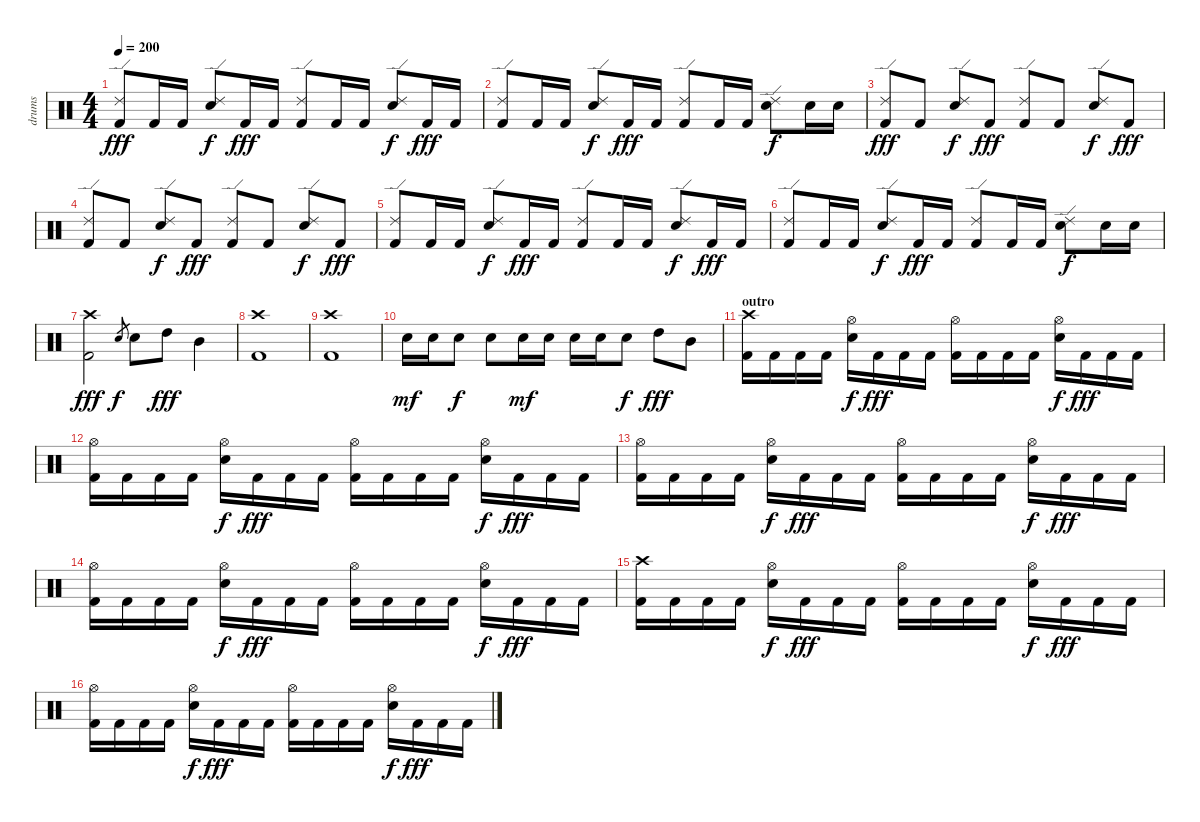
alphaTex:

\track ("drums" "drums") {instrument percussion}
\staff {score}
\articulation defaults
\ts (4 4)
\tempo 200
\clef neutral
\ks c
("Ride (edge) 2" "Kick (hit) 2").8{dy fff} "Kick (hit) 2".16 "Kick (hit) 2".16 ("Ride (edge) 2" "Snare (hit) 2").8{dy f} "Kick (hit) 2".16{dy fff} "Kick (hit) 2".16 ("Ride (edge) 2" "Kick (hit) 2").8 "Kick (hit) 2".16 "Kick (hit) 2".16 ("Ride (edge) 2" "Snare (hit) 2").8{dy f} "Kick (hit) 2".16{dy fff} "Kick (hit) 2".16 |
("Ride (edge) 2" "Kick (hit) 2").8 "Kick (hit) 2".16 "Kick (hit) 2".16 ("Ride (edge) 2" "Snare (hit) 2").8{dy f} "Kick (hit) 2".16{dy fff} "Kick (hit) 2".16 ("Ride (edge) 2" "Kick (hit) 2").8 "Kick (hit) 2".16 "Kick (hit) 2".16 ("Ride (edge) 2" "Snare (hit) 2").8{dy f} "Snare (hit) 2".16 "Snare (hit) 2".16 |
("Ride (edge) 2" "Kick (hit) 2").8{dy fff} "Kick (hit) 2".8 ("Ride (edge) 2" "Snare (hit) 2").8{dy f} "Kick (hit) 2".8{dy fff} ("Ride (edge) 2" "Kick (hit) 2").8 "Kick (hit) 2".8 ("Ride (edge) 2" "Snare (hit) 2").8{dy f} "Kick (hit) 2".8{dy fff} |
("Ride (edge) 2" "Kick (hit) 2").8 "Kick (hit) 2".8 ("Ride (edge) 2" "Snare (hit) 2").8{dy f} "Kick (hit) 2".8{dy fff} ("Ride (edge) 2" "Kick (hit) 2").8 "Kick (hit) 2".8 ("Ride (edge) 2" "Snare (hit) 2").8{dy f} "Kick (hit) 2".8{dy fff} |
("Ride (edge) 2" "Kick (hit) 2").8 "Kick (hit) 2".16 "Kick (hit) 2".16 ("Ride (edge) 2" "Snare (hit) 2").8{dy f} "Kick (hit) 2".16{dy fff} "Kick (hit) 2".16 ("Ride (edge) 2" "Kick (hit) 2").8 "Kick (hit) 2".16 "Kick (hit) 2".16 ("Ride (edge) 2" "Snare (hit) 2").8{dy f} "Kick (hit) 2".16{dy fff} "Kick (hit) 2".16 |
("Ride (edge) 2" "Kick (hit) 2").8 "Kick (hit) 2".16 "Kick (hit) 2".16 ("Ride (edge) 2" "Snare (hit) 2").8{dy f} "Kick (hit) 2".16{dy fff} "Kick (hit) 2".16 ("Ride (edge) 2" "Kick (hit) 2").8 "Kick (hit) 2".16 "Kick (hit) 2".16 ("Ride (edge) 2" "Snare (hit) 2").8{dy f} "Snare (hit) 2".16 "Snare (hit) 2".16 |
("Crash high (hit)" "Kick (hit) 2").2{dy fff} "Snare (hit) 2".8{gr dy f} "Snare (hit) 2".8 "High Tom (hit)".8{dy fff} "Mid Tom (hit)".4 |
("Crash high (hit)" "Kick (hit) 2").1 |
("Crash high (hit)" "Kick (hit) 2").1 |
"Snare (hit) 2".16{dy mf} "Snare (hit) 2".16 "Snare (hit) 2".8{dy f} "Snare (hit) 2".8 "Snare (hit) 2".16{dy mf} "Snare (hit) 2".16 "Snare (hit) 2".16 "Snare (hit) 2".16 "Snare (hit) 2".8{dy f} "High Tom (hit)".8{dy fff} "Mid Tom (hit)".8 |
\section ("" "outro")
("Crash high (hit)" "Kick (hit) 2").16 "Kick (hit) 2".16 "Kick (hit) 2".16 "Kick (hit) 2".16 ("Hi-Hat (open)" "Snare (hit) 2").16{dy f} "Kick (hit) 2".16{dy fff} "Kick (hit) 2".16 "Kick (hit) 2".16 ("Hi-Hat (open)" "Kick (hit) 2").16 "Kick (hit) 2".16 "Kick (hit) 2".16 "Kick (hit) 2".16 ("Hi-Hat (open)" "Snare (hit) 2").16{dy f} "Kick (hit) 2".16{dy fff} "Kick (hit) 2".16 "Kick (hit) 2".16 |
("Hi-Hat (open)" "Kick (hit) 2").16 "Kick (hit) 2".16 "Kick (hit) 2".16 "Kick (hit) 2".16 ("Hi-Hat (open)" "Snare (hit) 2").16{dy f} "Kick (hit) 2".16{dy fff} "Kick (hit) 2".16 "Kick (hit) 2".16 ("Hi-Hat (open)" "Kick (hit) 2").16 "Kick (hit) 2".16 "Kick (hit) 2".16 "Kick (hit) 2".16 ("Hi-Hat (open)" "Snare (hit) 2").16{dy f} "Kick (hit) 2".16{dy fff} "Kick (hit) 2".16 "Kick (hit) 2".16 |
("Hi-Hat (open)" "Kick (hit) 2").16 "Kick (hit) 2".16 "Kick (hit) 2".16 "Kick (hit) 2".16 ("Hi-Hat (open)" "Snare (hit) 2").16{dy f} "Kick (hit) 2".16{dy fff} "Kick (hit) 2".16 "Kick (hit) 2".16 ("Hi-Hat (open)" "Kick (hit) 2").16 "Kick (hit) 2".16 "Kick (hit) 2".16 "Kick (hit) 2".16 ("Hi-Hat (open)" "Snare (hit) 2").16{dy f} "Kick (hit) 2".16{dy fff} "Kick (hit) 2".16 "Kick (hit) 2".16 |
("Hi-Hat (open)" "Kick (hit) 2").16 "Kick (hit) 2".16 "Kick (hit) 2".16 "Kick (hit) 2".16 ("Hi-Hat (open)" "Snare (hit) 2").16{dy f} "Kick (hit) 2".16{dy fff} "Kick (hit) 2".16 "Kick (hit) 2".16 ("Hi-Hat (open)" "Kick (hit) 2").16 "Kick (hit) 2".16 "Kick (hit) 2".16 "Kick (hit) 2".16 ("Hi-Hat (open)" "Snare (hit) 2").16{dy f} "Kick (hit) 2".16{dy fff} "Kick (hit) 2".16 "Kick (hit) 2".16 |
("Crash high (hit)" "Kick (hit) 2").16 "Kick (hit) 2".16 "Kick (hit) 2".16 "Kick (hit) 2".16 ("Hi-Hat (open)" "Snare (hit) 2").16{dy f} "Kick (hit) 2".16{dy fff} "Kick (hit) 2".16 "Kick (hit) 2".16 ("Hi-Hat (open)" "Kick (hit) 2").16 "Kick (hit) 2".16 "Kick (hit) 2".16 "Kick (hit) 2".16 ("Hi-Hat (open)" "Snare (hit) 2").16{dy f} "Kick (hit) 2".16{dy fff} "Kick (hit) 2".16 "Kick (hit) 2".16 |
("Hi-Hat (open)" "Kick (hit) 2").16 "Kick (hit) 2".16 "Kick (hit) 2".16 "Kick (hit) 2".16 ("Hi-Hat (open)" "Snare (hit) 2").16{dy f} "Kick (hit) 2".16{dy fff} "Kick (hit) 2".16 "Kick (hit) 2".16 ("Hi-Hat (open)" "Kick (hit) 2").16 "Kick (hit) 2".16 "Kick (hit) 2".16 "Kick (hit) 2".16 ("Hi-Hat (open)" "Snare (hit) 2").16{dy f} "Kick (hit) 2".16{dy fff} "Kick (hit) 2".16 "Kick (hit) 2".16
